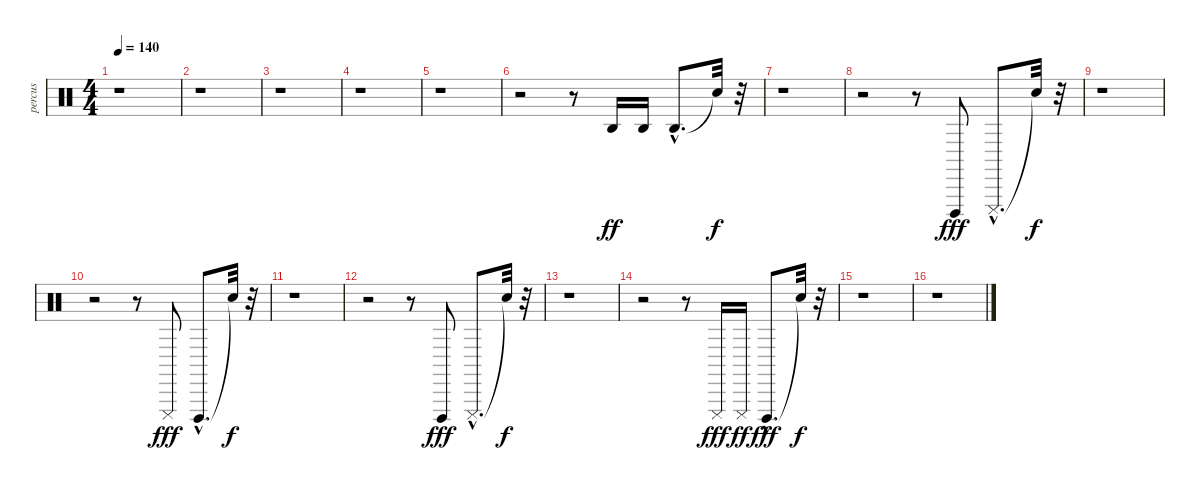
\track ("percus" "percus") {instrument percussion}
\staff {score}
\articulation defaults
\ts (4 4)
\tempo 140
\clef neutral
\ks c
r.1{dy f} |
r.1 |
r.1 |
r.1 |
r.1 |
r.2 r.8 "Agogo high (hit)".16{dy ff} "Agogo high (hit)".16 "Agogo high (hit)"{hac}.8{d} "Snare (hit)"{t}.32{dy f} r.32 |
r.1 |
r.2 r.8 "Cuica (open)".8{dy fff} "Cuica (mute)"{hac}.8{d} "Snare (hit)"{t}.32{dy f} r.32 |
r.1 |
r.2 r.8 "Cuica (mute)".8{dy fff} "Cuica (open)"{hac}.8{d} "Snare (hit)"{t}.32{dy f} r.32 |
r.1 |
r.2 r.8 "Cuica (open)".8{dy fff} "Cuica (mute)"{hac}.8{d} "Snare (hit)"{t}.32{dy f} r.32 |
r.1 |
r.2 r.8 "Cuica (mute)".16{dy fff} "Cuica (mute)".16{dy ff} "Cuica (open)"{hac}.8{d dy fff} "Snare (hit)"{t}.32{dy f} r.32 |
r.1 |
r.1
